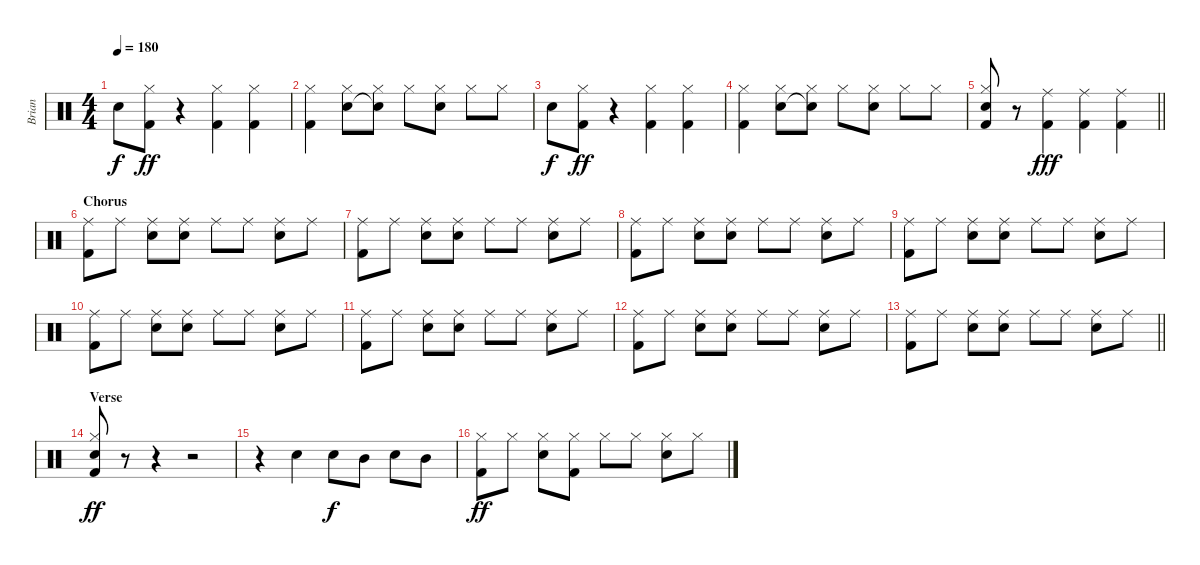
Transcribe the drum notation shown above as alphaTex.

\track ("Brian" "Brian") {instrument percussion}
\staff {score}
\articulation defaults
\ts (4 4)
\tempo 180
\clef neutral
\ks c "Snare (hit) 2".8{dy f}
("Hi-Hat (closed)" "Kick (hit) 2").8{dy ff} r.4 ("Hi-Hat (closed)" "Kick (hit) 2").4 ("Hi-Hat (closed)" "Kick (hit) 2").4 |
("Hi-Hat (closed)" "Kick (hit) 2").4 ("Hi-Hat (closed)" "Snare (hit) 2").8 ("Hi-Hat (closed)" "Electric Snare (hit)"{t}).8 "Hi-Hat (closed)".8 ("Hi-Hat (closed)" "Snare (hit) 2").8 "Hi-Hat (closed)".8 "Hi-Hat (closed)".8 |
"Snare (hit) 2".8{dy f} ("Hi-Hat (closed)" "Kick (hit) 2").8{dy ff} r.4 ("Hi-Hat (closed)" "Kick (hit) 2").4 ("Hi-Hat (closed)" "Kick (hit) 2").4 |
("Hi-Hat (closed)" "Kick (hit) 2").4 ("Hi-Hat (closed)" "Snare (hit) 2").8 ("Hi-Hat (closed)" "Electric Snare (hit)"{t}).8 "Hi-Hat (closed)".8 ("Hi-Hat (closed)" "Snare (hit) 2").8 "Hi-Hat (closed)".8 "Hi-Hat (closed)".8 |
\barLineRight lightlight
("Hi-Hat (closed)" "Snare (hit) 2" "Kick (hit) 2").8 r.8 ("Ride (middle)" "Kick (hit) 2").4{dy fff} ("Ride (middle)" "Kick (hit) 2").4 ("Ride (middle)" "Kick (hit) 2").4 |
\section ("" "Chorus")
("Ride (middle)" "Kick (hit) 2").8 "Ride (middle)".8 ("Ride (middle)" "Snare (hit) 2").8 ("Ride (middle)" "Snare (hit) 2").8 "Ride (middle)".8 "Ride (middle)".8 ("Ride (middle)" "Snare (hit) 2").8 "Ride (middle)".8 |
("Ride (middle)" "Kick (hit) 2").8 "Ride (middle)".8 ("Ride (middle)" "Snare (hit) 2").8 ("Ride (middle)" "Snare (hit) 2").8 "Ride (middle)".8 "Ride (middle)".8 ("Ride (middle)" "Snare (hit) 2").8 "Ride (middle)".8 |
("Ride (middle)" "Kick (hit) 2").8 "Ride (middle)".8 ("Ride (middle)" "Snare (hit) 2").8 ("Ride (middle)" "Snare (hit) 2").8 "Ride (middle)".8 "Ride (middle)".8 ("Ride (middle)" "Snare (hit) 2").8 "Ride (middle)".8 |
("Ride (middle)" "Kick (hit) 2").8 "Ride (middle)".8 ("Ride (middle)" "Snare (hit) 2").8 ("Ride (middle)" "Snare (hit) 2").8 "Ride (middle)".8 "Ride (middle)".8 ("Ride (middle)" "Snare (hit) 2").8 "Ride (middle)".8 |
("Ride (middle)" "Kick (hit) 2").8 "Ride (middle)".8 ("Ride (middle)" "Snare (hit) 2").8 ("Ride (middle)" "Snare (hit) 2").8 "Ride (middle)".8 "Ride (middle)".8 ("Ride (middle)" "Snare (hit) 2").8 "Ride (middle)".8 |
("Ride (middle)" "Kick (hit) 2").8 "Ride (middle)".8 ("Ride (middle)" "Snare (hit) 2").8 ("Ride (middle)" "Snare (hit) 2").8 "Ride (middle)".8 "Ride (middle)".8 ("Ride (middle)" "Snare (hit) 2").8 "Ride (middle)".8 |
("Ride (middle)" "Kick (hit) 2").8 "Ride (middle)".8 ("Ride (middle)" "Snare (hit) 2").8 ("Ride (middle)" "Snare (hit) 2").8 "Ride (middle)".8 "Ride (middle)".8 ("Ride (middle)" "Snare (hit) 2").8 "Ride (middle)".8 |
\barLineRight lightlight
("Ride (middle)" "Kick (hit) 2").8 "Ride (middle)".8 ("Ride (middle)" "Snare (hit) 2").8 ("Ride (middle)" "Snare (hit) 2").8 "Ride (middle)".8 "Ride (middle)".8 ("Ride (middle)" "Snare (hit) 2").8 "Ride (middle)".8 |
\section ("" "Verse")
("Hi-Hat (closed)" "Snare (hit) 2" "Kick (hit) 2").8{dy ff} r.8 r.4 r.2 |
r.4 "Snare (hit) 2".4 "Snare (hit) 2".8{dy f} "Mid Tom (hit)".8 "Snare (hit) 2".8 "Mid Tom (hit)".8 |
("Hi-Hat (closed)" "Kick (hit) 2").8{dy ff} "Hi-Hat (closed)".8 ("Hi-Hat (closed)" "Snare (hit) 2").8 ("Hi-Hat (closed)" "Kick (hit) 2").8 "Hi-Hat (closed)".8 "Hi-Hat (closed)".8 ("Hi-Hat (closed)" "Snare (hit) 2").8 "Hi-Hat (closed)".8
